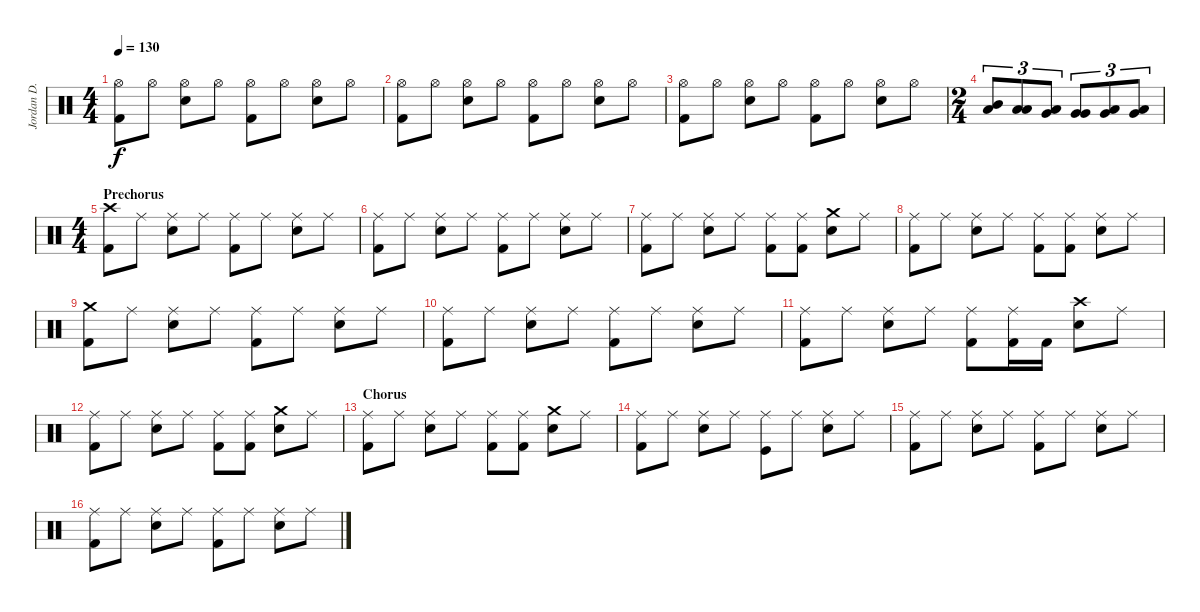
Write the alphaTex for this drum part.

\track ("Jordan D. Samolesky" "Jordan D. ") {instrument percussion}
\staff {score}
\articulation defaults
\ts (4 4)
\tempo 130
\clef neutral
\ks c
("Hi-Hat (open)" "Kick (hit) 2").8{dy f} "Hi-Hat (open)".8 ("Electric Snare (hit)" "Hi-Hat (open)").8 "Hi-Hat (open)".8 ("Hi-Hat (open)" "Kick (hit) 2").8 "Hi-Hat (open)".8 ("Electric Snare (hit)" "Hi-Hat (open)").8 "Hi-Hat (open)".8 |
("Hi-Hat (open)" "Kick (hit) 2").8 "Hi-Hat (open)".8 ("Electric Snare (hit)" "Hi-Hat (open)").8 "Hi-Hat (open)".8 ("Hi-Hat (open)" "Kick (hit) 2").8 "Hi-Hat (open)".8 ("Electric Snare (hit)" "Hi-Hat (open)").8 "Hi-Hat (open)".8 |
("Hi-Hat (open)" "Kick (hit) 2").8 "Hi-Hat (open)".8 ("Electric Snare (hit)" "Hi-Hat (open)").8 "Hi-Hat (open)".8 ("Hi-Hat (open)" "Kick (hit) 2").8 "Hi-Hat (open)".8 ("Electric Snare (hit)" "Hi-Hat (open)").8 "Hi-Hat (open)".8 |
\ts (2 4)
("Mid Tom (hit)" "Low Tom (hit)").8{tu (3 2)} ("Low Tom (hit)" "Low Tom (hit)").8{tu (3 2)} ("Low Tom (hit)" "Very Low Tom (hit)").8{tu (3 2)} ("Very Low Tom (hit)" "Very Low Tom (hit)").8{tu (3 2)} ("Very Low Tom (hit)" "Low Floor Tom (hit)").8{tu (3 2)} ("Very Low Tom (hit)" "Low Floor Tom (hit)").8{tu (3 2)} |
\ts (4 4)
\section ("" "Prechorus")
("Crash high (hit)" "Kick (hit) 2").8 "Ride (middle)".8 ("Electric Snare (hit)" "Ride (middle)").8 "Ride (middle)".8 ("Ride (middle)" "Kick (hit) 2").8 "Ride (middle)".8 ("Electric Snare (hit)" "Ride (middle)").8 "Ride (middle)".8 |
("Ride (middle)" "Kick (hit) 2").8 "Ride (middle)".8 ("Electric Snare (hit)" "Ride (middle)").8 "Ride (middle)".8 ("Ride (middle)" "Kick (hit) 2").8 "Ride (middle)".8 ("Electric Snare (hit)" "Ride (middle)").8 "Ride (middle)".8 |
("Ride (middle)" "Kick (hit) 2").8 "Ride (middle)".8 ("Electric Snare (hit)" "Ride (middle)").8 "Ride (middle)".8 ("Ride (middle)" "Kick (hit) 2").8 ("Ride (middle)" "Kick (hit) 2").8 ("Crash medium (hit)" "Electric Snare (hit)").8 "Ride (middle)".8 |
("Ride (middle)" "Kick (hit) 2").8 "Ride (middle)".8 ("Electric Snare (hit)" "Ride (middle)").8 "Ride (middle)".8 ("Ride (middle)" "Kick (hit) 2").8 ("Ride (middle)" "Kick (hit) 2").8 ("Electric Snare (hit)" "Ride (middle)").8 "Ride (middle)".8 |
("Crash medium (hit)" "Kick (hit) 2").8 "Ride (middle)".8 ("Electric Snare (hit)" "Ride (middle)").8 "Ride (middle)".8 ("Ride (middle)" "Kick (hit) 2").8 "Ride (middle)".8 ("Electric Snare (hit)" "Ride (middle)").8 "Ride (middle)".8 |
("Ride (middle)" "Kick (hit) 2").8 "Ride (middle)".8 ("Electric Snare (hit)" "Ride (middle)").8 "Ride (middle)".8 ("Ride (middle)" "Kick (hit) 2").8 "Ride (middle)".8 ("Electric Snare (hit)" "Ride (middle)").8 "Ride (middle)".8 |
("Ride (middle)" "Kick (hit) 2").8 "Ride (middle)".8 ("Electric Snare (hit)" "Ride (middle)").8 "Ride (middle)".8 ("Ride (middle)" "Kick (hit) 2").8 ("Ride (middle)" "Kick (hit) 2").16 "Kick (hit) 2".16 ("Crash high (hit)" "Electric Snare (hit)").8 "Ride (middle)".8 |
("Ride (middle)" "Kick (hit) 2").8 "Ride (middle)".8 ("Electric Snare (hit)" "Ride (middle)").8 "Ride (middle)".8 ("Ride (middle)" "Kick (hit) 2").8 ("Ride (middle)" "Kick (hit) 2").8 ("Crash medium (hit)" "Electric Snare (hit)").8 "Ride (middle)".8 |
\section ("" "Chorus")
("Ride (middle)" "Kick (hit) 2").8 "Ride (middle)".8 ("Electric Snare (hit)" "Ride (middle)").8 "Ride (middle)".8 ("Ride (middle)" "Kick (hit) 2").8 ("Ride (middle)" "Kick (hit) 2").8 ("Crash medium (hit)" "Electric Snare (hit)").8 "Ride (middle)".8 |
("Ride (middle)" "Kick (hit) 2").8 "Ride (middle)".8 ("Electric Snare (hit)" "Ride (middle)").8 "Ride (middle)".8 ("Ride (middle)" "Kick (hit)").8 "Ride (middle)".8 ("Electric Snare (hit)" "Ride (middle)").8 "Ride (middle)".8 |
("Ride (middle)" "Kick (hit) 2").8 "Ride (middle)".8 ("Electric Snare (hit)" "Ride (middle)").8 "Ride (middle)".8 ("Ride (middle)" "Kick (hit) 2").8 "Ride (middle)".8 ("Electric Snare (hit)" "Ride (middle)").8 "Ride (middle)".8 |
("Ride (middle)" "Kick (hit) 2").8 "Ride (middle)".8 ("Electric Snare (hit)" "Ride (middle)").8 "Ride (middle)".8 ("Ride (middle)" "Kick (hit) 2").8 "Ride (middle)".8 ("Electric Snare (hit)" "Ride (middle)").8 "Ride (middle)".8
